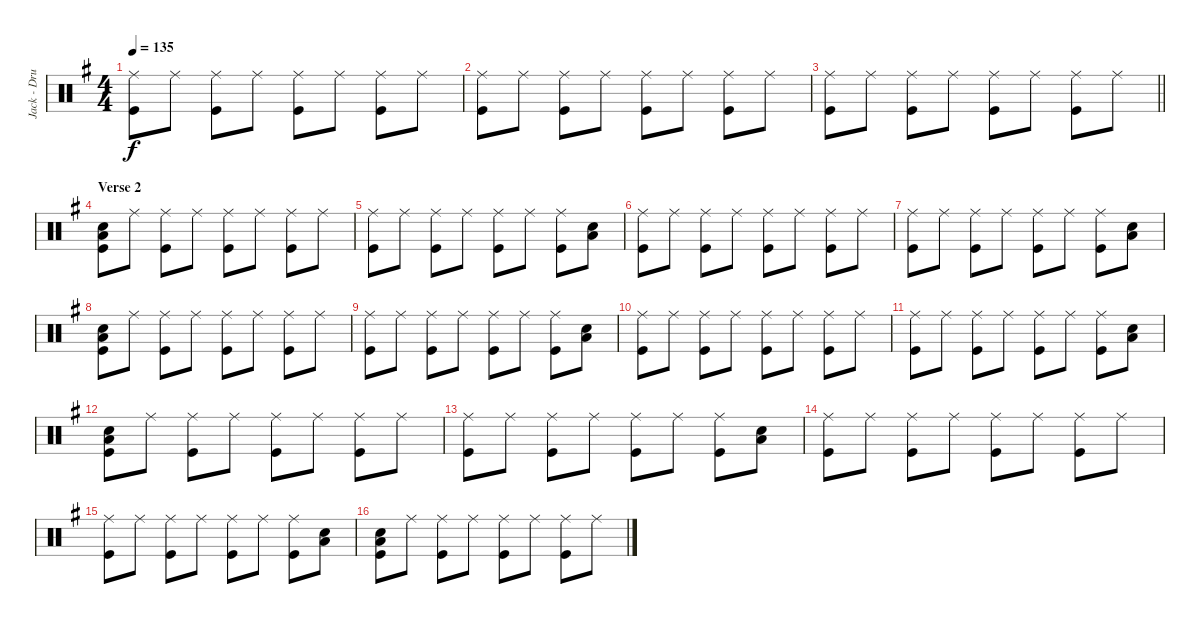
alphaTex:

\track ("Jack - Drums" "Jack - Dru") {instrument percussion}
\staff {score}
\articulation defaults
\ts (4 4)
\tempo 135
\clef neutral
\ks g
("Ride (middle)" "Kick (hit)").8{dy f} "Ride (middle)".8 ("Ride (middle)" "Kick (hit)").8 "Ride (middle)".8 ("Ride (middle)" "Kick (hit)").8 "Ride (middle)".8 ("Ride (middle)" "Kick (hit)").8 "Ride (middle)".8 |
("Ride (middle)" "Kick (hit)").8 "Ride (middle)".8 ("Ride (middle)" "Kick (hit)").8 "Ride (middle)".8 ("Ride (middle)" "Kick (hit)").8 "Ride (middle)".8 ("Ride (middle)" "Kick (hit)").8 "Ride (middle)".8 |
\barLineRight lightlight
("Ride (middle)" "Kick (hit)").8 "Ride (middle)".8 ("Ride (middle)" "Kick (hit)").8 "Ride (middle)".8 ("Ride (middle)" "Kick (hit)").8 "Ride (middle)".8 ("Ride (middle)" "Kick (hit)").8 "Ride (middle)".8 |
\section ("" "Verse 2")
("Snare (hit) 2" "Low Tom (hit)" "Kick (hit)").8 "Ride (middle)".8 ("Ride (middle)" "Kick (hit)").8 "Ride (middle)".8 ("Ride (middle)" "Kick (hit)").8 "Ride (middle)".8 ("Ride (middle)" "Kick (hit)").8 "Ride (middle)".8 |
("Ride (middle)" "Kick (hit)").8 "Ride (middle)".8 ("Ride (middle)" "Kick (hit)").8 "Ride (middle)".8 ("Ride (middle)" "Kick (hit)").8 "Ride (middle)".8 ("Ride (middle)" "Kick (hit)").8 ("Snare (hit) 2" "Low Tom (hit)").8 |
("Ride (middle)" "Kick (hit)").8 "Ride (middle)".8 ("Ride (middle)" "Kick (hit)").8 "Ride (middle)".8 ("Ride (middle)" "Kick (hit)").8 "Ride (middle)".8 ("Ride (middle)" "Kick (hit)").8 "Ride (middle)".8 |
("Ride (middle)" "Kick (hit)").8 "Ride (middle)".8 ("Ride (middle)" "Kick (hit)").8 "Ride (middle)".8 ("Ride (middle)" "Kick (hit)").8 "Ride (middle)".8 ("Ride (middle)" "Kick (hit)").8 ("Snare (hit) 2" "Low Tom (hit)").8 |
("Snare (hit) 2" "Low Tom (hit)" "Kick (hit)").8 "Ride (middle)".8 ("Ride (middle)" "Kick (hit)").8 "Ride (middle)".8 ("Ride (middle)" "Kick (hit)").8 "Ride (middle)".8 ("Ride (middle)" "Kick (hit)").8 "Ride (middle)".8 |
("Ride (middle)" "Kick (hit)").8 "Ride (middle)".8 ("Ride (middle)" "Kick (hit)").8 "Ride (middle)".8 ("Ride (middle)" "Kick (hit)").8 "Ride (middle)".8 ("Ride (middle)" "Kick (hit)").8 ("Snare (hit) 2" "Low Tom (hit)").8 |
("Ride (middle)" "Kick (hit)").8 "Ride (middle)".8 ("Ride (middle)" "Kick (hit)").8 "Ride (middle)".8 ("Ride (middle)" "Kick (hit)").8 "Ride (middle)".8 ("Ride (middle)" "Kick (hit)").8 "Ride (middle)".8 |
("Ride (middle)" "Kick (hit)").8 "Ride (middle)".8 ("Ride (middle)" "Kick (hit)").8 "Ride (middle)".8 ("Ride (middle)" "Kick (hit)").8 "Ride (middle)".8 ("Ride (middle)" "Kick (hit)").8 ("Snare (hit) 2" "Low Tom (hit)").8 |
("Snare (hit) 2" "Low Tom (hit)" "Kick (hit)").8 "Ride (middle)".8 ("Ride (middle)" "Kick (hit)").8 "Ride (middle)".8 ("Ride (middle)" "Kick (hit)").8 "Ride (middle)".8 ("Ride (middle)" "Kick (hit)").8 "Ride (middle)".8 |
("Ride (middle)" "Kick (hit)").8 "Ride (middle)".8 ("Ride (middle)" "Kick (hit)").8 "Ride (middle)".8 ("Ride (middle)" "Kick (hit)").8 "Ride (middle)".8 ("Ride (middle)" "Kick (hit)").8 ("Snare (hit) 2" "Low Tom (hit)").8 |
("Ride (middle)" "Kick (hit)").8 "Ride (middle)".8 ("Ride (middle)" "Kick (hit)").8 "Ride (middle)".8 ("Ride (middle)" "Kick (hit)").8 "Ride (middle)".8 ("Ride (middle)" "Kick (hit)").8 "Ride (middle)".8 |
("Ride (middle)" "Kick (hit)").8 "Ride (middle)".8 ("Ride (middle)" "Kick (hit)").8 "Ride (middle)".8 ("Ride (middle)" "Kick (hit)").8 "Ride (middle)".8 ("Ride (middle)" "Kick (hit)").8 ("Snare (hit) 2" "Low Tom (hit)").8 |
("Snare (hit) 2" "Low Tom (hit)" "Kick (hit)").8 "Ride (middle)".8 ("Ride (middle)" "Kick (hit)").8 "Ride (middle)".8 ("Ride (middle)" "Kick (hit)").8 "Ride (middle)".8 ("Ride (middle)" "Kick (hit)").8 "Ride (middle)".8
